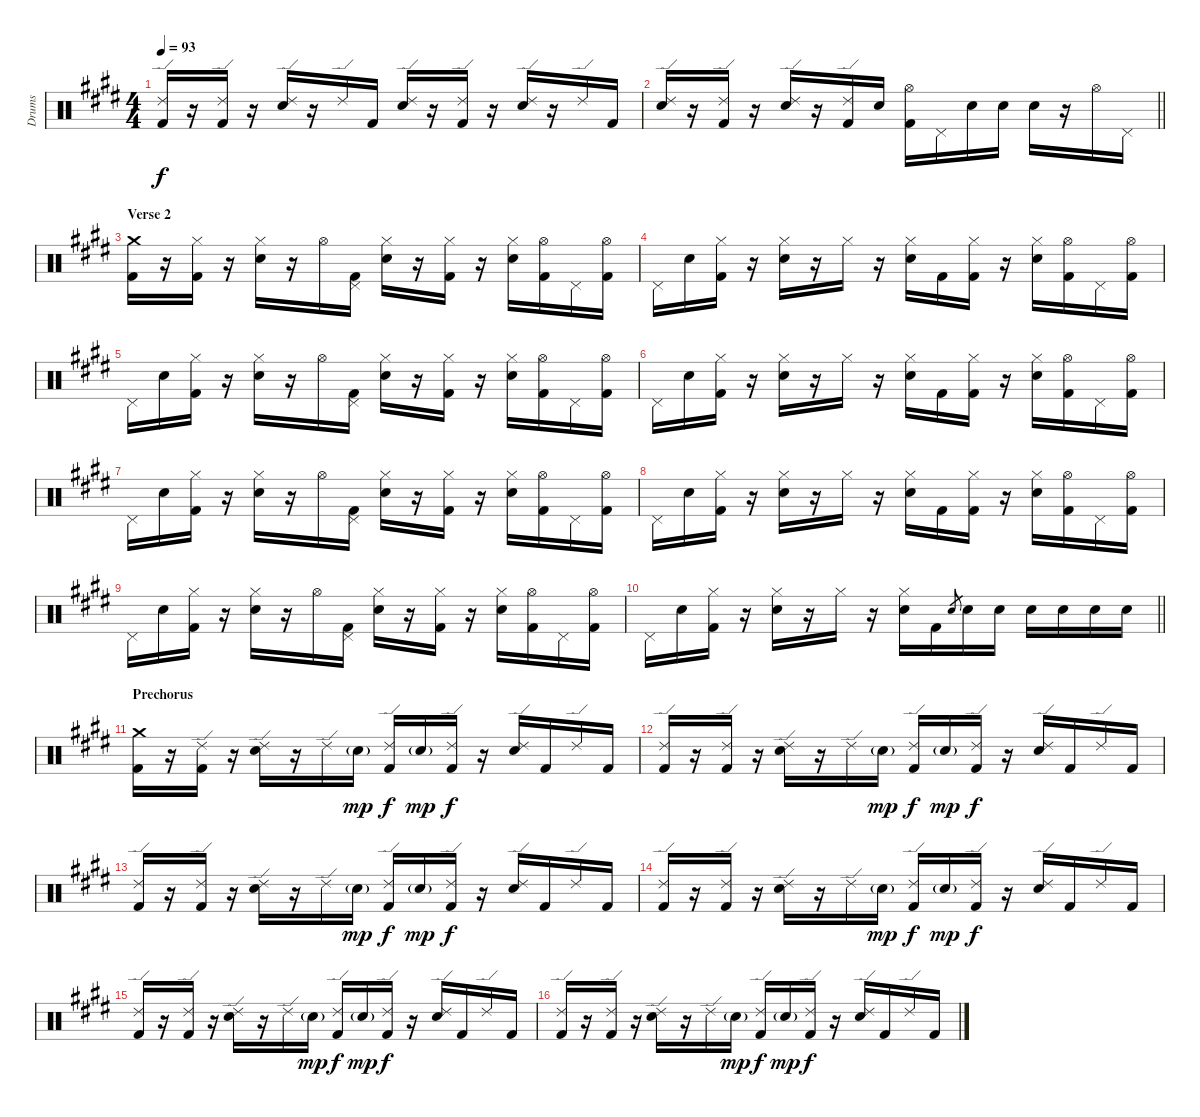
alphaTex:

\track ("Drums" "Drums") {instrument percussion}
\staff {score}
\articulation defaults
\ts (4 4)
\tempo 93
\clef neutral
\ks e
("Ride (edge) 2" "Kick (hit) 2").16{dy f} r.16 ("Ride (edge) 2" "Kick (hit) 2").16 r.16 ("Ride (edge) 2" "Snare (hit) 2").16 r.16 "Ride (edge) 2".16 "Kick (hit) 2".16 ("Ride (edge) 2" "Snare (hit) 2").16 r.16 ("Ride (edge) 2" "Kick (hit) 2").16 r.16 ("Ride (edge) 2" "Snare (hit) 2").16 r.16 "Ride (edge) 2".16 "Kick (hit) 2".16 |
\barLineRight lightlight
("Ride (edge) 2" "Snare (hit) 2").16 r.16 ("Ride (edge) 2" "Kick (hit) 2").16 r.16 ("Ride (edge) 2" "Snare (hit) 2").16 r.16 ("Ride (edge) 2" "Kick (hit) 2").16 "Snare (hit) 2".16 ("Hi-Hat (open)" "Kick (hit) 2").16 "Pedal Hi-Hat (hit)".16 "Snare (hit) 2".16 "Snare (hit) 2".16 "Snare (hit) 2".16 r.16 "Hi-Hat (open)".16 "Pedal Hi-Hat (hit)".16 |
\section ("" "Verse 2")
("Crash medium (hit)" "Kick (hit) 2").16 r.16 ("Hi-Hat (closed)" "Kick (hit) 2").16 r.16 ("Hi-Hat (closed)" "Snare (hit) 2").16 r.16 "Hi-Hat (open)".16 ("Pedal Hi-Hat (hit)" "Kick (hit) 2").16 ("Hi-Hat (closed)" "Snare (hit) 2").16 r.16 ("Hi-Hat (closed)" "Kick (hit) 2").16 r.16 ("Hi-Hat (closed)" "Snare (hit) 2").16 ("Hi-Hat (open)" "Kick (hit) 2").16 "Pedal Hi-Hat (hit)".16 ("Hi-Hat (open)" "Kick (hit) 2").16 |
"Pedal Hi-Hat (hit)".16 "Snare (hit) 2".16 ("Hi-Hat (closed)" "Kick (hit) 2").16 r.16 ("Hi-Hat (closed)" "Snare (hit) 2").16 r.16 "Hi-Hat (closed)".16 r.16 ("Hi-Hat (closed)" "Snare (hit) 2").16 "Kick (hit) 2".16 ("Hi-Hat (closed)" "Kick (hit) 2").16 r.16 ("Hi-Hat (closed)" "Snare (hit) 2").16 ("Hi-Hat (open)" "Kick (hit) 2").16 "Pedal Hi-Hat (hit)".16 ("Hi-Hat (open)" "Kick (hit) 2").16 |
"Pedal Hi-Hat (hit)".16 "Snare (hit) 2".16 ("Hi-Hat (closed)" "Kick (hit) 2").16 r.16 ("Hi-Hat (closed)" "Snare (hit) 2").16 r.16 "Hi-Hat (open)".16 ("Pedal Hi-Hat (hit)" "Kick (hit) 2").16 ("Hi-Hat (closed)" "Snare (hit) 2").16 r.16 ("Hi-Hat (closed)" "Kick (hit) 2").16 r.16 ("Hi-Hat (closed)" "Snare (hit) 2").16 ("Hi-Hat (open)" "Kick (hit) 2").16 "Pedal Hi-Hat (hit)".16 ("Hi-Hat (open)" "Kick (hit) 2").16 |
"Pedal Hi-Hat (hit)".16 "Snare (hit) 2".16 ("Hi-Hat (closed)" "Kick (hit) 2").16 r.16 ("Hi-Hat (closed)" "Snare (hit) 2").16 r.16 "Hi-Hat (closed)".16 r.16 ("Hi-Hat (closed)" "Snare (hit) 2").16 "Kick (hit) 2".16 ("Hi-Hat (closed)" "Kick (hit) 2").16 r.16 ("Hi-Hat (closed)" "Snare (hit) 2").16 ("Hi-Hat (open)" "Kick (hit) 2").16 "Pedal Hi-Hat (hit)".16 ("Hi-Hat (open)" "Kick (hit) 2").16 |
"Pedal Hi-Hat (hit)".16 "Snare (hit) 2".16 ("Hi-Hat (closed)" "Kick (hit) 2").16 r.16 ("Hi-Hat (closed)" "Snare (hit) 2").16 r.16 "Hi-Hat (open)".16 ("Pedal Hi-Hat (hit)" "Kick (hit) 2").16 ("Hi-Hat (closed)" "Snare (hit) 2").16 r.16 ("Hi-Hat (closed)" "Kick (hit) 2").16 r.16 ("Hi-Hat (closed)" "Snare (hit) 2").16 ("Hi-Hat (open)" "Kick (hit) 2").16 "Pedal Hi-Hat (hit)".16 ("Hi-Hat (open)" "Kick (hit) 2").16 |
"Pedal Hi-Hat (hit)".16 "Snare (hit) 2".16 ("Hi-Hat (closed)" "Kick (hit) 2").16 r.16 ("Hi-Hat (closed)" "Snare (hit) 2").16 r.16 "Hi-Hat (closed)".16 r.16 ("Hi-Hat (closed)" "Snare (hit) 2").16 "Kick (hit) 2".16 ("Hi-Hat (closed)" "Kick (hit) 2").16 r.16 ("Hi-Hat (closed)" "Snare (hit) 2").16 ("Hi-Hat (open)" "Kick (hit) 2").16 "Pedal Hi-Hat (hit)".16 ("Hi-Hat (open)" "Kick (hit) 2").16 |
"Pedal Hi-Hat (hit)".16 "Snare (hit) 2".16 ("Hi-Hat (closed)" "Kick (hit) 2").16 r.16 ("Hi-Hat (closed)" "Snare (hit) 2").16 r.16 "Hi-Hat (open)".16 ("Pedal Hi-Hat (hit)" "Kick (hit) 2").16 ("Hi-Hat (closed)" "Snare (hit) 2").16 r.16 ("Hi-Hat (closed)" "Kick (hit) 2").16 r.16 ("Hi-Hat (closed)" "Snare (hit) 2").16 ("Hi-Hat (open)" "Kick (hit) 2").16 "Pedal Hi-Hat (hit)".16 ("Hi-Hat (open)" "Kick (hit) 2").16 |
\barLineRight lightlight "Pedal Hi-Hat (hit)".16 "Snare (hit) 2".16
("Hi-Hat (closed)" "Kick (hit) 2").16 r.16 ("Hi-Hat (closed)" "Snare (hit) 2").16 r.16 "Hi-Hat (closed)".16 r.16 ("Hi-Hat (closed)" "Snare (hit) 2").16 "Kick (hit) 2".16 "Snare (hit) 2".8{gr} "Snare (hit) 2".16 "Snare (hit) 2".16 "Snare (hit) 2".16 "Snare (hit) 2".16 "Snare (hit) 2".16 "Snare (hit) 2".16 |
\section ("" "Prechorus")
("Crash medium (hit)" "Kick (hit) 2").16 r.16 ("Ride (edge) 2" "Kick (hit) 2").16 r.16 ("Ride (edge) 2" "Snare (hit) 2").16 r.16 "Ride (edge) 2".16 "Snare (hit) 2"{g}.16{dy mp} ("Ride (edge) 2" "Kick (hit) 2").16{dy f} "Snare (hit) 2"{g}.16{dy mp} ("Ride (edge) 2" "Kick (hit) 2").16{dy f} r.16 ("Ride (edge) 2" "Snare (hit) 2").16 "Kick (hit) 2".16 "Ride (edge) 2".16 "Kick (hit) 2".16 |
("Ride (edge) 2" "Kick (hit) 2").16 r.16 ("Ride (edge) 2" "Kick (hit) 2").16 r.16 ("Ride (edge) 2" "Snare (hit) 2").16 r.16 "Ride (edge) 2".16 "Snare (hit) 2"{g}.16{dy mp} ("Ride (edge) 2" "Kick (hit) 2").16{dy f} "Snare (hit) 2"{g}.16{dy mp} ("Ride (edge) 2" "Kick (hit) 2").16{dy f} r.16 ("Ride (edge) 2" "Snare (hit) 2").16 "Kick (hit) 2".16 "Ride (edge) 2".16 "Kick (hit) 2".16 |
("Ride (edge) 2" "Kick (hit) 2").16 r.16 ("Ride (edge) 2" "Kick (hit) 2").16 r.16 ("Ride (edge) 2" "Snare (hit) 2").16 r.16 "Ride (edge) 2".16 "Snare (hit) 2"{g}.16{dy mp} ("Ride (edge) 2" "Kick (hit) 2").16{dy f} "Snare (hit) 2"{g}.16{dy mp} ("Ride (edge) 2" "Kick (hit) 2").16{dy f} r.16 ("Ride (edge) 2" "Snare (hit) 2").16 "Kick (hit) 2".16 "Ride (edge) 2".16 "Kick (hit) 2".16 |
("Ride (edge) 2" "Kick (hit) 2").16 r.16 ("Ride (edge) 2" "Kick (hit) 2").16 r.16 ("Ride (edge) 2" "Snare (hit) 2").16 r.16 "Ride (edge) 2".16 "Snare (hit) 2"{g}.16{dy mp} ("Ride (edge) 2" "Kick (hit) 2").16{dy f} "Snare (hit) 2"{g}.16{dy mp} ("Ride (edge) 2" "Kick (hit) 2").16{dy f} r.16 ("Ride (edge) 2" "Snare (hit) 2").16 "Kick (hit) 2".16 "Ride (edge) 2".16 "Kick (hit) 2".16 |
("Ride (edge) 2" "Kick (hit) 2").16 r.16 ("Ride (edge) 2" "Kick (hit) 2").16 r.16 ("Ride (edge) 2" "Snare (hit) 2").16 r.16 "Ride (edge) 2".16 "Snare (hit) 2"{g}.16{dy mp} ("Ride (edge) 2" "Kick (hit) 2").16{dy f} "Snare (hit) 2"{g}.16{dy mp} ("Ride (edge) 2" "Kick (hit) 2").16{dy f} r.16 ("Ride (edge) 2" "Snare (hit) 2").16 "Kick (hit) 2".16 "Ride (edge) 2".16 "Kick (hit) 2".16 |
("Ride (edge) 2" "Kick (hit) 2").16 r.16 ("Ride (edge) 2" "Kick (hit) 2").16 r.16 ("Ride (edge) 2" "Snare (hit) 2").16 r.16 "Ride (edge) 2".16 "Snare (hit) 2"{g}.16{dy mp} ("Ride (edge) 2" "Kick (hit) 2").16{dy f} "Snare (hit) 2"{g}.16{dy mp} ("Ride (edge) 2" "Kick (hit) 2").16{dy f} r.16 ("Ride (edge) 2" "Snare (hit) 2").16 "Kick (hit) 2".16 "Ride (edge) 2".16 "Kick (hit) 2".16
